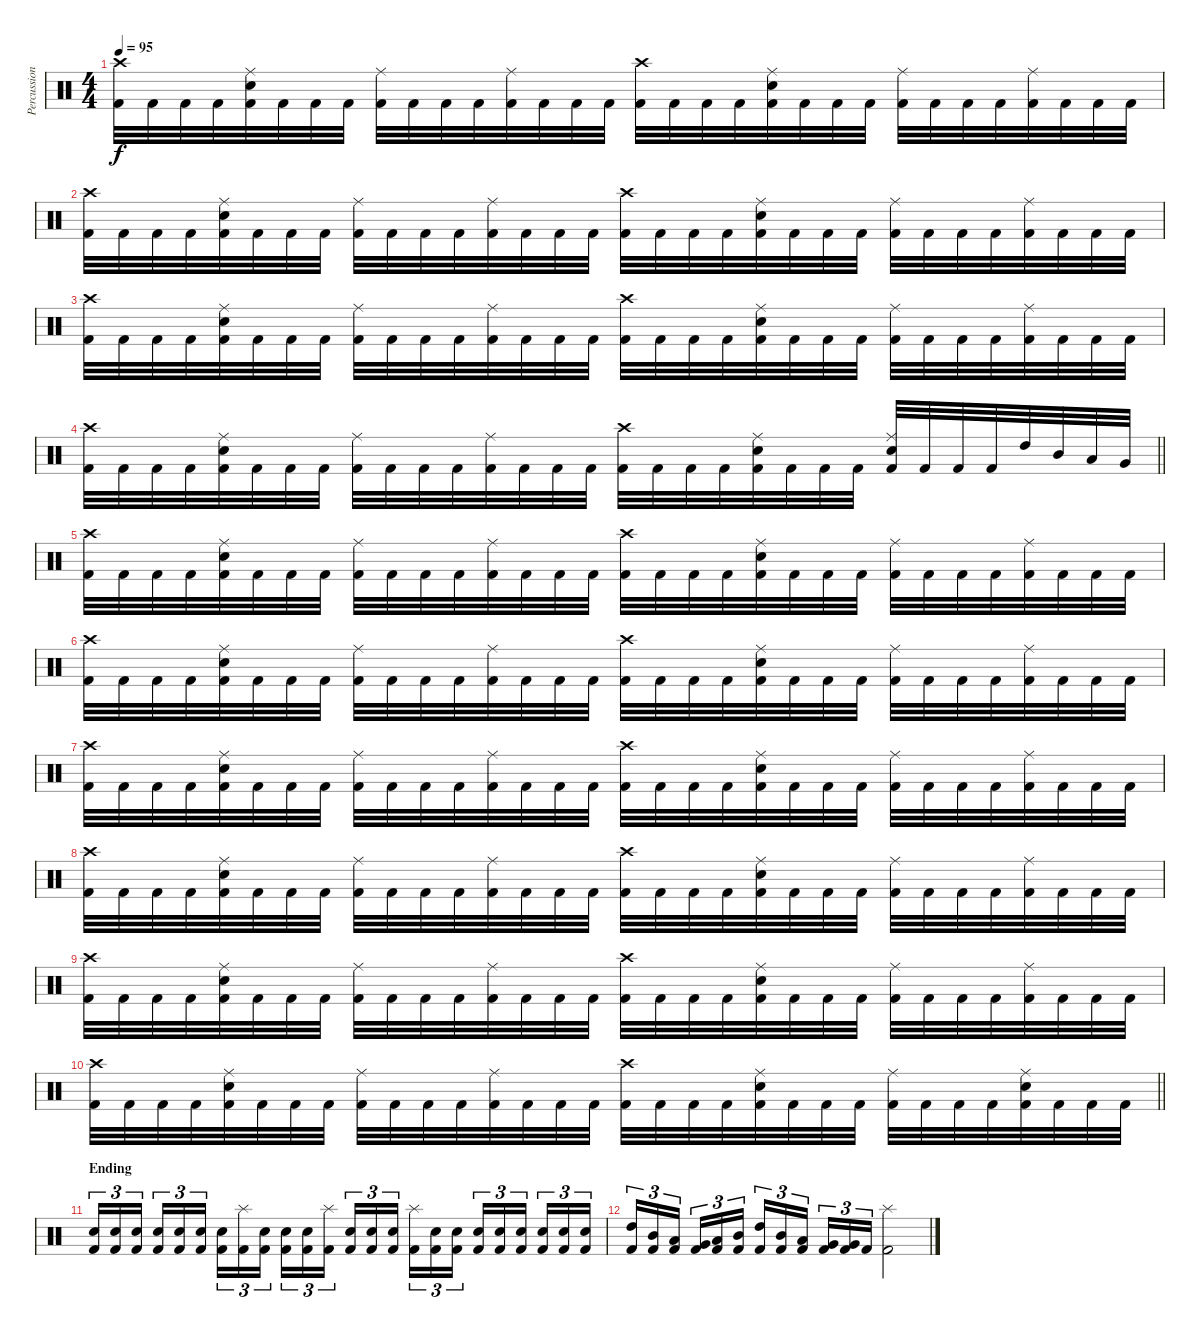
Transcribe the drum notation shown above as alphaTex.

\track ("Percussion" "Percussion") {instrument percussion}
\staff {score}
\articulation defaults
\ts (4 4)
\tempo 95
\clef neutral
\ks c
("Crash high (hit)" "Kick (hit) 2").32{dy f} "Kick (hit) 2".32 "Kick (hit) 2".32 "Kick (hit) 2".32 ("Ride (middle)" "Electric Snare (hit)" "Kick (hit) 2").32 "Kick (hit) 2".32 "Kick (hit) 2".32 "Kick (hit) 2".32 ("Ride (middle)" "Kick (hit) 2").32 "Kick (hit) 2".32 "Kick (hit) 2".32 "Kick (hit) 2".32 ("Ride (middle)" "Kick (hit) 2").32 "Kick (hit) 2".32 "Kick (hit) 2".32 "Kick (hit) 2".32 ("Crash high (hit)" "Kick (hit) 2").32 "Kick (hit) 2".32 "Kick (hit) 2".32 "Kick (hit) 2".32 ("Ride (middle)" "Electric Snare (hit)" "Kick (hit) 2").32 "Kick (hit) 2".32 "Kick (hit) 2".32 "Kick (hit) 2".32 ("Ride (middle)" "Kick (hit) 2").32 "Kick (hit) 2".32 "Kick (hit) 2".32 "Kick (hit) 2".32 ("Ride (middle)" "Kick (hit) 2").32 "Kick (hit) 2".32 "Kick (hit) 2".32 "Kick (hit) 2".32 |
("Crash high (hit)" "Kick (hit) 2").32 "Kick (hit) 2".32 "Kick (hit) 2".32 "Kick (hit) 2".32 ("Ride (middle)" "Electric Snare (hit)" "Kick (hit) 2").32 "Kick (hit) 2".32 "Kick (hit) 2".32 "Kick (hit) 2".32 ("Ride (middle)" "Kick (hit) 2").32 "Kick (hit) 2".32 "Kick (hit) 2".32 "Kick (hit) 2".32 ("Ride (middle)" "Kick (hit) 2").32 "Kick (hit) 2".32 "Kick (hit) 2".32 "Kick (hit) 2".32 ("Crash high (hit)" "Kick (hit) 2").32 "Kick (hit) 2".32 "Kick (hit) 2".32 "Kick (hit) 2".32 ("Ride (middle)" "Electric Snare (hit)" "Kick (hit) 2").32 "Kick (hit) 2".32 "Kick (hit) 2".32 "Kick (hit) 2".32 ("Ride (middle)" "Kick (hit) 2").32 "Kick (hit) 2".32 "Kick (hit) 2".32 "Kick (hit) 2".32 ("Ride (middle)" "Kick (hit) 2").32 "Kick (hit) 2".32 "Kick (hit) 2".32 "Kick (hit) 2".32 |
("Crash high (hit)" "Kick (hit) 2").32 "Kick (hit) 2".32 "Kick (hit) 2".32 "Kick (hit) 2".32 ("Ride (middle)" "Electric Snare (hit)" "Kick (hit) 2").32 "Kick (hit) 2".32 "Kick (hit) 2".32 "Kick (hit) 2".32 ("Ride (middle)" "Kick (hit) 2").32 "Kick (hit) 2".32 "Kick (hit) 2".32 "Kick (hit) 2".32 ("Ride (middle)" "Kick (hit) 2").32 "Kick (hit) 2".32 "Kick (hit) 2".32 "Kick (hit) 2".32 ("Crash high (hit)" "Kick (hit) 2").32 "Kick (hit) 2".32 "Kick (hit) 2".32 "Kick (hit) 2".32 ("Ride (middle)" "Electric Snare (hit)" "Kick (hit) 2").32 "Kick (hit) 2".32 "Kick (hit) 2".32 "Kick (hit) 2".32 ("Ride (middle)" "Kick (hit) 2").32 "Kick (hit) 2".32 "Kick (hit) 2".32 "Kick (hit) 2".32 ("Ride (middle)" "Kick (hit) 2").32 "Kick (hit) 2".32 "Kick (hit) 2".32 "Kick (hit) 2".32 |
\barLineRight lightlight
("Crash high (hit)" "Kick (hit) 2").32 "Kick (hit) 2".32 "Kick (hit) 2".32 "Kick (hit) 2".32 ("Ride (middle)" "Electric Snare (hit)" "Kick (hit) 2").32 "Kick (hit) 2".32 "Kick (hit) 2".32 "Kick (hit) 2".32 ("Ride (middle)" "Kick (hit) 2").32 "Kick (hit) 2".32 "Kick (hit) 2".32 "Kick (hit) 2".32 ("Ride (middle)" "Kick (hit) 2").32 "Kick (hit) 2".32 "Kick (hit) 2".32 "Kick (hit) 2".32 ("Crash high (hit)" "Kick (hit) 2").32 "Kick (hit) 2".32 "Kick (hit) 2".32 "Kick (hit) 2".32 ("Ride (middle)" "Electric Snare (hit)" "Kick (hit) 2").32 "Kick (hit) 2".32 "Kick (hit) 2".32 "Kick (hit) 2".32 ("Ride (middle)" "Electric Snare (hit)" "Kick (hit) 2").32 "Kick (hit) 2".32 "Kick (hit) 2".32 "Kick (hit) 2".32 "High Tom (hit)".32 "Mid Tom (hit)".32 "Low Tom (hit)".32 "Very Low Tom (hit)".32 |
("Crash high (hit)" "Kick (hit) 2").32 "Kick (hit) 2".32 "Kick (hit) 2".32 "Kick (hit) 2".32 ("Ride (middle)" "Electric Snare (hit)" "Kick (hit) 2").32 "Kick (hit) 2".32 "Kick (hit) 2".32 "Kick (hit) 2".32 ("Ride (middle)" "Kick (hit) 2").32 "Kick (hit) 2".32 "Kick (hit) 2".32 "Kick (hit) 2".32 ("Ride (middle)" "Kick (hit) 2").32 "Kick (hit) 2".32 "Kick (hit) 2".32 "Kick (hit) 2".32 ("Crash high (hit)" "Kick (hit) 2").32 "Kick (hit) 2".32 "Kick (hit) 2".32 "Kick (hit) 2".32 ("Ride (middle)" "Electric Snare (hit)" "Kick (hit) 2").32 "Kick (hit) 2".32 "Kick (hit) 2".32 "Kick (hit) 2".32 ("Ride (middle)" "Kick (hit) 2").32 "Kick (hit) 2".32 "Kick (hit) 2".32 "Kick (hit) 2".32 ("Ride (middle)" "Kick (hit) 2").32 "Kick (hit) 2".32 "Kick (hit) 2".32 "Kick (hit) 2".32 |
("Crash high (hit)" "Kick (hit) 2").32 "Kick (hit) 2".32 "Kick (hit) 2".32 "Kick (hit) 2".32 ("Ride (middle)" "Electric Snare (hit)" "Kick (hit) 2").32 "Kick (hit) 2".32 "Kick (hit) 2".32 "Kick (hit) 2".32 ("Ride (middle)" "Kick (hit) 2").32 "Kick (hit) 2".32 "Kick (hit) 2".32 "Kick (hit) 2".32 ("Ride (middle)" "Kick (hit) 2").32 "Kick (hit) 2".32 "Kick (hit) 2".32 "Kick (hit) 2".32 ("Crash high (hit)" "Kick (hit) 2").32 "Kick (hit) 2".32 "Kick (hit) 2".32 "Kick (hit) 2".32 ("Ride (middle)" "Electric Snare (hit)" "Kick (hit) 2").32 "Kick (hit) 2".32 "Kick (hit) 2".32 "Kick (hit) 2".32 ("Ride (middle)" "Kick (hit) 2").32 "Kick (hit) 2".32 "Kick (hit) 2".32 "Kick (hit) 2".32 ("Ride (middle)" "Kick (hit) 2").32 "Kick (hit) 2".32 "Kick (hit) 2".32 "Kick (hit) 2".32 |
("Crash high (hit)" "Kick (hit) 2").32 "Kick (hit) 2".32 "Kick (hit) 2".32 "Kick (hit) 2".32 ("Ride (middle)" "Electric Snare (hit)" "Kick (hit) 2").32 "Kick (hit) 2".32 "Kick (hit) 2".32 "Kick (hit) 2".32 ("Ride (middle)" "Kick (hit) 2").32 "Kick (hit) 2".32 "Kick (hit) 2".32 "Kick (hit) 2".32 ("Ride (middle)" "Kick (hit) 2").32 "Kick (hit) 2".32 "Kick (hit) 2".32 "Kick (hit) 2".32 ("Crash high (hit)" "Kick (hit) 2").32 "Kick (hit) 2".32 "Kick (hit) 2".32 "Kick (hit) 2".32 ("Ride (middle)" "Electric Snare (hit)" "Kick (hit) 2").32 "Kick (hit) 2".32 "Kick (hit) 2".32 "Kick (hit) 2".32 ("Ride (middle)" "Kick (hit) 2").32 "Kick (hit) 2".32 "Kick (hit) 2".32 "Kick (hit) 2".32 ("Ride (middle)" "Kick (hit) 2").32 "Kick (hit) 2".32 "Kick (hit) 2".32 "Kick (hit) 2".32 |
("Crash high (hit)" "Kick (hit) 2").32 "Kick (hit) 2".32 "Kick (hit) 2".32 "Kick (hit) 2".32 ("Ride (middle)" "Electric Snare (hit)" "Kick (hit) 2").32 "Kick (hit) 2".32 "Kick (hit) 2".32 "Kick (hit) 2".32 ("Ride (middle)" "Kick (hit) 2").32 "Kick (hit) 2".32 "Kick (hit) 2".32 "Kick (hit) 2".32 ("Ride (middle)" "Kick (hit) 2").32 "Kick (hit) 2".32 "Kick (hit) 2".32 "Kick (hit) 2".32 ("Crash high (hit)" "Kick (hit) 2").32 "Kick (hit) 2".32 "Kick (hit) 2".32 "Kick (hit) 2".32 ("Ride (middle)" "Electric Snare (hit)" "Kick (hit) 2").32 "Kick (hit) 2".32 "Kick (hit) 2".32 "Kick (hit) 2".32 ("Ride (middle)" "Kick (hit) 2").32 "Kick (hit) 2".32 "Kick (hit) 2".32 "Kick (hit) 2".32 ("Ride (middle)" "Kick (hit) 2").32 "Kick (hit) 2".32 "Kick (hit) 2".32 "Kick (hit) 2".32 |
("Crash high (hit)" "Kick (hit) 2").32 "Kick (hit) 2".32 "Kick (hit) 2".32 "Kick (hit) 2".32 ("Ride (middle)" "Electric Snare (hit)" "Kick (hit) 2").32 "Kick (hit) 2".32 "Kick (hit) 2".32 "Kick (hit) 2".32 ("Ride (middle)" "Kick (hit) 2").32 "Kick (hit) 2".32 "Kick (hit) 2".32 "Kick (hit) 2".32 ("Ride (middle)" "Kick (hit) 2").32 "Kick (hit) 2".32 "Kick (hit) 2".32 "Kick (hit) 2".32 ("Crash high (hit)" "Kick (hit) 2").32 "Kick (hit) 2".32 "Kick (hit) 2".32 "Kick (hit) 2".32 ("Ride (middle)" "Electric Snare (hit)" "Kick (hit) 2").32 "Kick (hit) 2".32 "Kick (hit) 2".32 "Kick (hit) 2".32 ("Ride (middle)" "Kick (hit) 2").32 "Kick (hit) 2".32 "Kick (hit) 2".32 "Kick (hit) 2".32 ("Ride (middle)" "Kick (hit) 2").32 "Kick (hit) 2".32 "Kick (hit) 2".32 "Kick (hit) 2".32 |
\barLineRight lightlight
("Crash high (hit)" "Kick (hit) 2").32 "Kick (hit) 2".32 "Kick (hit) 2".32 "Kick (hit) 2".32 ("Ride (middle)" "Electric Snare (hit)" "Kick (hit) 2").32 "Kick (hit) 2".32 "Kick (hit) 2".32 "Kick (hit) 2".32 ("Ride (middle)" "Kick (hit) 2").32 "Kick (hit) 2".32 "Kick (hit) 2".32 "Kick (hit) 2".32 ("Ride (middle)" "Kick (hit) 2").32 "Kick (hit) 2".32 "Kick (hit) 2".32 "Kick (hit) 2".32 ("Crash high (hit)" "Kick (hit) 2").32 "Kick (hit) 2".32 "Kick (hit) 2".32 "Kick (hit) 2".32 ("Ride (middle)" "Electric Snare (hit)" "Kick (hit) 2").32 "Kick (hit) 2".32 "Kick (hit) 2".32 "Kick (hit) 2".32 ("Ride (middle)" "Kick (hit) 2").32 "Kick (hit) 2".32 "Kick (hit) 2".32 "Kick (hit) 2".32 ("Ride (middle)" "Electric Snare (hit)" "Kick (hit) 2").32 "Kick (hit) 2".32 "Kick (hit) 2".32 "Kick (hit) 2".32 |
\section ("" "Ending")
("Electric Snare (hit)" "Kick (hit) 2").16{tu (3 2)} ("Electric Snare (hit)" "Kick (hit) 2").16{tu (3 2)} ("Electric Snare (hit)" "Kick (hit) 2").16{tu (3 2) beam splitsecondary} ("Electric Snare (hit)" "Kick (hit) 2").16{tu (3 2)} ("Electric Snare (hit)" "Kick (hit) 2").16{tu (3 2)} ("Electric Snare (hit)" "Kick (hit) 2").16{tu (3 2)} ("Electric Snare (hit)" "Kick (hit) 2").16{tu (3 2)} ("Splash (hit)" "Kick (hit) 2").16{tu (3 2)} ("Electric Snare (hit)" "Kick (hit) 2").16{tu (3 2) beam splitsecondary} ("Electric Snare (hit)" "Kick (hit) 2").16{tu (3 2)} ("Electric Snare (hit)" "Kick (hit) 2").16{tu (3 2)} ("Splash (hit)" "Kick (hit) 2").16{tu (3 2)} ("Electric Snare (hit)" "Kick (hit) 2").16{tu (3 2)} ("Electric Snare (hit)" "Kick (hit) 2").16{tu (3 2)} ("Electric Snare (hit)" "Kick (hit) 2").16{tu (3 2) beam splitsecondary} ("Splash (hit)" "Kick (hit) 2").16{tu (3 2)} ("Electric Snare (hit)" "Kick (hit) 2").16{tu (3 2)} ("Electric Snare (hit)" "Kick (hit) 2").16{tu (3 2)} ("Electric Snare (hit)" "Kick (hit) 2").16{tu (3 2)} ("Electric Snare (hit)" "Kick (hit) 2").16{tu (3 2)} ("Electric Snare (hit)" "Kick (hit) 2").16{tu (3 2) beam splitsecondary} ("Electric Snare (hit)" "Kick (hit) 2").16{tu (3 2)} ("Electric Snare (hit)" "Kick (hit) 2").16{tu (3 2)} ("Electric Snare (hit)" "Kick (hit) 2").16{tu (3 2)} |
("High Tom (hit)" "Kick (hit) 2").16{tu (3 2)} ("Mid Tom (hit)" "Kick (hit) 2").16{tu (3 2)} ("Low Tom (hit)" "Kick (hit) 2").16{tu (3 2) beam splitsecondary} ("Very Low Tom (hit)" "Kick (hit) 2").16{tu (3 2)} ("Low Tom (hit)" "Kick (hit) 2").16{tu (3 2)} ("Mid Tom (hit)" "Kick (hit) 2").16{tu (3 2)} ("High Tom (hit)" "Kick (hit) 2").16{tu (3 2)} ("Mid Tom (hit)" "Kick (hit) 2").16{tu (3 2)} ("Low Tom (hit)" "Kick (hit) 2").16{tu (3 2) beam splitsecondary} ("Very Low Tom (hit)" "Kick (hit) 2").16{tu (3 2)} ("Very Low Tom (hit)" "Kick (hit) 2").16{tu (3 2)} "Kick (hit) 2".16{tu (3 2)} ("Splash (hit)" "Kick (hit) 2").2
